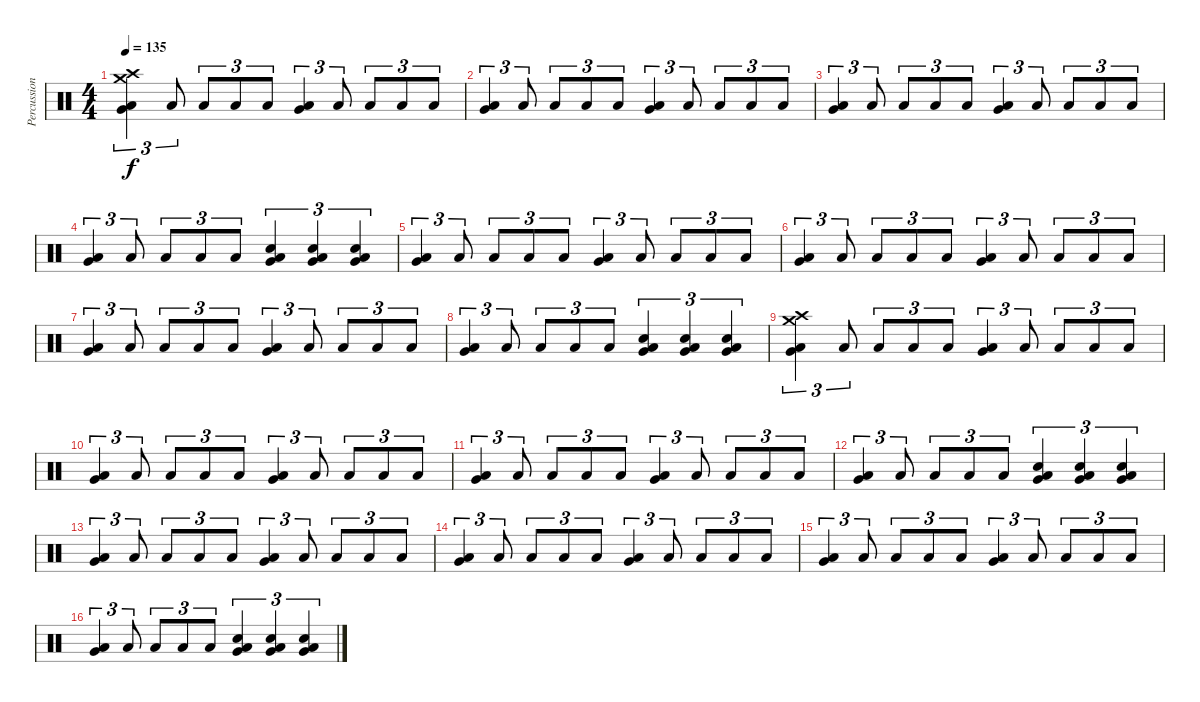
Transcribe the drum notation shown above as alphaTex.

\track ("Percussion" "Percussion") {instrument percussion}
\staff {score}
\articulation defaults
\ts (4 4)
\tempo 135
\clef neutral
\ks c
("Crash high (hit)" "Crash medium (hit)" "Very Low Tom (hit)" "Low Floor Tom (hit)").4{tu (3 2) dy f} "Low Floor Tom (hit)".8{tu (3 2)} "Low Floor Tom (hit)".8{tu (3 2)} "Low Floor Tom (hit)".8{tu (3 2)} "Low Floor Tom (hit)".8{tu (3 2)} ("Very Low Tom (hit)" "Low Floor Tom (hit)").4{tu (3 2)} "Low Floor Tom (hit)".8{tu (3 2)} "Low Floor Tom (hit)".8{tu (3 2)} "Low Floor Tom (hit)".8{tu (3 2)} "Low Floor Tom (hit)".8{tu (3 2)} |
("Very Low Tom (hit)" "Low Floor Tom (hit)").4{tu (3 2)} "Low Floor Tom (hit)".8{tu (3 2)} "Low Floor Tom (hit)".8{tu (3 2)} "Low Floor Tom (hit)".8{tu (3 2)} "Low Floor Tom (hit)".8{tu (3 2)} ("Very Low Tom (hit)" "Low Floor Tom (hit)").4{tu (3 2)} "Low Floor Tom (hit)".8{tu (3 2)} "Low Floor Tom (hit)".8{tu (3 2)} "Low Floor Tom (hit)".8{tu (3 2)} "Low Floor Tom (hit)".8{tu (3 2)} |
("Very Low Tom (hit)" "Low Floor Tom (hit)").4{tu (3 2)} "Low Floor Tom (hit)".8{tu (3 2)} "Low Floor Tom (hit)".8{tu (3 2)} "Low Floor Tom (hit)".8{tu (3 2)} "Low Floor Tom (hit)".8{tu (3 2)} ("Very Low Tom (hit)" "Low Floor Tom (hit)").4{tu (3 2)} "Low Floor Tom (hit)".8{tu (3 2)} "Low Floor Tom (hit)".8{tu (3 2)} "Low Floor Tom (hit)".8{tu (3 2)} "Low Floor Tom (hit)".8{tu (3 2)} |
("Very Low Tom (hit)" "Low Floor Tom (hit)").4{tu (3 2)} "Low Floor Tom (hit)".8{tu (3 2)} "Low Floor Tom (hit)".8{tu (3 2)} "Low Floor Tom (hit)".8{tu (3 2)} "Low Floor Tom (hit)".8{tu (3 2)} ("Hand Clap (hit)" "Very Low Tom (hit)" "Low Floor Tom (hit)").4{tu (3 2)} ("Hand Clap (hit)" "Very Low Tom (hit)" "Low Floor Tom (hit)").4{tu (3 2)} ("Hand Clap (hit)" "Very Low Tom (hit)" "Low Floor Tom (hit)").4{tu (3 2)} |
("Very Low Tom (hit)" "Low Floor Tom (hit)").4{tu (3 2)} "Low Floor Tom (hit)".8{tu (3 2)} "Low Floor Tom (hit)".8{tu (3 2)} "Low Floor Tom (hit)".8{tu (3 2)} "Low Floor Tom (hit)".8{tu (3 2)} ("Very Low Tom (hit)" "Low Floor Tom (hit)").4{tu (3 2)} "Low Floor Tom (hit)".8{tu (3 2)} "Low Floor Tom (hit)".8{tu (3 2)} "Low Floor Tom (hit)".8{tu (3 2)} "Low Floor Tom (hit)".8{tu (3 2)} |
("Very Low Tom (hit)" "Low Floor Tom (hit)").4{tu (3 2)} "Low Floor Tom (hit)".8{tu (3 2)} "Low Floor Tom (hit)".8{tu (3 2)} "Low Floor Tom (hit)".8{tu (3 2)} "Low Floor Tom (hit)".8{tu (3 2)} ("Very Low Tom (hit)" "Low Floor Tom (hit)").4{tu (3 2)} "Low Floor Tom (hit)".8{tu (3 2)} "Low Floor Tom (hit)".8{tu (3 2)} "Low Floor Tom (hit)".8{tu (3 2)} "Low Floor Tom (hit)".8{tu (3 2)} |
("Very Low Tom (hit)" "Low Floor Tom (hit)").4{tu (3 2)} "Low Floor Tom (hit)".8{tu (3 2)} "Low Floor Tom (hit)".8{tu (3 2)} "Low Floor Tom (hit)".8{tu (3 2)} "Low Floor Tom (hit)".8{tu (3 2)} ("Very Low Tom (hit)" "Low Floor Tom (hit)").4{tu (3 2)} "Low Floor Tom (hit)".8{tu (3 2)} "Low Floor Tom (hit)".8{tu (3 2)} "Low Floor Tom (hit)".8{tu (3 2)} "Low Floor Tom (hit)".8{tu (3 2)} |
("Very Low Tom (hit)" "Low Floor Tom (hit)").4{tu (3 2)} "Low Floor Tom (hit)".8{tu (3 2)} "Low Floor Tom (hit)".8{tu (3 2)} "Low Floor Tom (hit)".8{tu (3 2)} "Low Floor Tom (hit)".8{tu (3 2)} ("Hand Clap (hit)" "Very Low Tom (hit)" "Low Floor Tom (hit)").4{tu (3 2)} ("Hand Clap (hit)" "Very Low Tom (hit)" "Low Floor Tom (hit)").4{tu (3 2)} ("Hand Clap (hit)" "Very Low Tom (hit)" "Low Floor Tom (hit)").4{tu (3 2)} |
("Crash high (hit)" "Crash medium (hit)" "Very Low Tom (hit)" "Low Floor Tom (hit)").4{tu (3 2)} "Low Floor Tom (hit)".8{tu (3 2)} "Low Floor Tom (hit)".8{tu (3 2)} "Low Floor Tom (hit)".8{tu (3 2)} "Low Floor Tom (hit)".8{tu (3 2)} ("Very Low Tom (hit)" "Low Floor Tom (hit)").4{tu (3 2)} "Low Floor Tom (hit)".8{tu (3 2)} "Low Floor Tom (hit)".8{tu (3 2)} "Low Floor Tom (hit)".8{tu (3 2)} "Low Floor Tom (hit)".8{tu (3 2)} |
("Very Low Tom (hit)" "Low Floor Tom (hit)").4{tu (3 2)} "Low Floor Tom (hit)".8{tu (3 2)} "Low Floor Tom (hit)".8{tu (3 2)} "Low Floor Tom (hit)".8{tu (3 2)} "Low Floor Tom (hit)".8{tu (3 2)} ("Very Low Tom (hit)" "Low Floor Tom (hit)").4{tu (3 2)} "Low Floor Tom (hit)".8{tu (3 2)} "Low Floor Tom (hit)".8{tu (3 2)} "Low Floor Tom (hit)".8{tu (3 2)} "Low Floor Tom (hit)".8{tu (3 2)} |
("Very Low Tom (hit)" "Low Floor Tom (hit)").4{tu (3 2)} "Low Floor Tom (hit)".8{tu (3 2)} "Low Floor Tom (hit)".8{tu (3 2)} "Low Floor Tom (hit)".8{tu (3 2)} "Low Floor Tom (hit)".8{tu (3 2)} ("Very Low Tom (hit)" "Low Floor Tom (hit)").4{tu (3 2)} "Low Floor Tom (hit)".8{tu (3 2)} "Low Floor Tom (hit)".8{tu (3 2)} "Low Floor Tom (hit)".8{tu (3 2)} "Low Floor Tom (hit)".8{tu (3 2)} |
("Very Low Tom (hit)" "Low Floor Tom (hit)").4{tu (3 2)} "Low Floor Tom (hit)".8{tu (3 2)} "Low Floor Tom (hit)".8{tu (3 2)} "Low Floor Tom (hit)".8{tu (3 2)} "Low Floor Tom (hit)".8{tu (3 2)} ("Hand Clap (hit)" "Very Low Tom (hit)" "Low Floor Tom (hit)").4{tu (3 2)} ("Hand Clap (hit)" "Very Low Tom (hit)" "Low Floor Tom (hit)").4{tu (3 2)} ("Hand Clap (hit)" "Very Low Tom (hit)" "Low Floor Tom (hit)").4{tu (3 2)} |
("Very Low Tom (hit)" "Low Floor Tom (hit)").4{tu (3 2)} "Low Floor Tom (hit)".8{tu (3 2)} "Low Floor Tom (hit)".8{tu (3 2)} "Low Floor Tom (hit)".8{tu (3 2)} "Low Floor Tom (hit)".8{tu (3 2)} ("Very Low Tom (hit)" "Low Floor Tom (hit)").4{tu (3 2)} "Low Floor Tom (hit)".8{tu (3 2)} "Low Floor Tom (hit)".8{tu (3 2)} "Low Floor Tom (hit)".8{tu (3 2)} "Low Floor Tom (hit)".8{tu (3 2)} |
("Very Low Tom (hit)" "Low Floor Tom (hit)").4{tu (3 2)} "Low Floor Tom (hit)".8{tu (3 2)} "Low Floor Tom (hit)".8{tu (3 2)} "Low Floor Tom (hit)".8{tu (3 2)} "Low Floor Tom (hit)".8{tu (3 2)} ("Very Low Tom (hit)" "Low Floor Tom (hit)").4{tu (3 2)} "Low Floor Tom (hit)".8{tu (3 2)} "Low Floor Tom (hit)".8{tu (3 2)} "Low Floor Tom (hit)".8{tu (3 2)} "Low Floor Tom (hit)".8{tu (3 2)} |
("Very Low Tom (hit)" "Low Floor Tom (hit)").4{tu (3 2)} "Low Floor Tom (hit)".8{tu (3 2)} "Low Floor Tom (hit)".8{tu (3 2)} "Low Floor Tom (hit)".8{tu (3 2)} "Low Floor Tom (hit)".8{tu (3 2)} ("Very Low Tom (hit)" "Low Floor Tom (hit)").4{tu (3 2)} "Low Floor Tom (hit)".8{tu (3 2)} "Low Floor Tom (hit)".8{tu (3 2)} "Low Floor Tom (hit)".8{tu (3 2)} "Low Floor Tom (hit)".8{tu (3 2)} |
("Very Low Tom (hit)" "Low Floor Tom (hit)").4{tu (3 2)} "Low Floor Tom (hit)".8{tu (3 2)} "Low Floor Tom (hit)".8{tu (3 2)} "Low Floor Tom (hit)".8{tu (3 2)} "Low Floor Tom (hit)".8{tu (3 2)} ("Hand Clap (hit)" "Very Low Tom (hit)" "Low Floor Tom (hit)").4{tu (3 2)} ("Hand Clap (hit)" "Very Low Tom (hit)" "Low Floor Tom (hit)").4{tu (3 2)} ("Hand Clap (hit)" "Very Low Tom (hit)" "Low Floor Tom (hit)").4{tu (3 2)}
